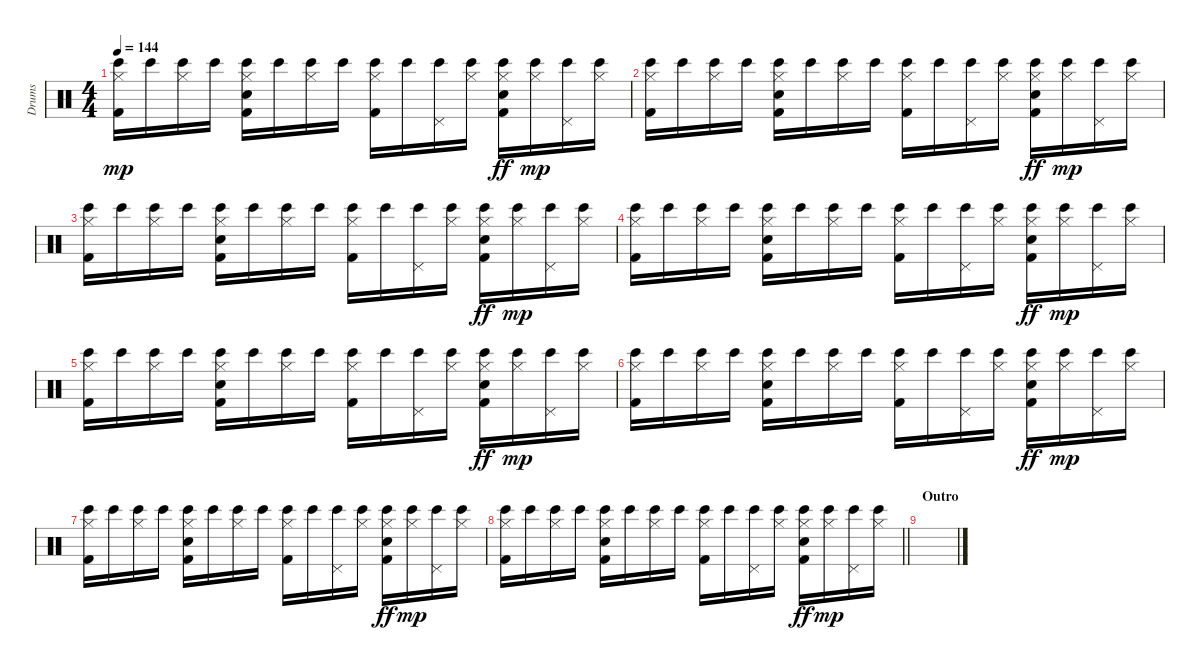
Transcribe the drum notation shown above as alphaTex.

\track ("Drums" "Drums") {instrument percussion}
\staff {score}
\articulation defaults
\ts (4 4)
\tempo 144
\clef neutral
\ks c
("Kick (hit) 2" "Hi-Hat (closed)" "Bongo High (hit)").16{dy mp} "Bongo High (hit)".16 ("Hi-Hat (closed)" "Bongo High (hit)").16 "Bongo High (hit)".16 ("Kick (hit) 2" "Snare (hit) 2" "Hi-Hat (closed)" "Bongo High (hit)").16 "Bongo High (hit)".16 ("Hi-Hat (closed)" "Bongo High (hit)").16 "Bongo High (hit)".16 ("Kick (hit) 2" "Hi-Hat (closed)" "Bongo High (hit)").16 "Bongo High (hit)".16 ("Pedal Hi-Hat (hit)" "Bongo High (hit)").16 ("Hi-Hat (closed)" "Bongo High (hit)").16 ("Kick (hit) 2" "Snare (hit) 2" "Hi-Hat (closed)" "Bongo High (hit)").16{dy ff} ("Hi-Hat (closed)" "Bongo High (hit)").16{dy mp} ("Pedal Hi-Hat (hit)" "Bongo High (hit)").16 ("Hi-Hat (closed)" "Bongo High (hit)").16 |
("Kick (hit) 2" "Hi-Hat (closed)" "Bongo High (hit)").16 "Bongo High (hit)".16 ("Hi-Hat (closed)" "Bongo High (hit)").16 "Bongo High (hit)".16 ("Kick (hit) 2" "Snare (hit) 2" "Hi-Hat (closed)" "Bongo High (hit)").16 "Bongo High (hit)".16 ("Hi-Hat (closed)" "Bongo High (hit)").16 "Bongo High (hit)".16 ("Kick (hit) 2" "Hi-Hat (closed)" "Bongo High (hit)").16 "Bongo High (hit)".16 ("Pedal Hi-Hat (hit)" "Bongo High (hit)").16 ("Hi-Hat (closed)" "Bongo High (hit)").16 ("Kick (hit) 2" "Snare (hit) 2" "Hi-Hat (closed)" "Bongo High (hit)").16{dy ff} ("Hi-Hat (closed)" "Bongo High (hit)").16{dy mp} ("Pedal Hi-Hat (hit)" "Bongo High (hit)").16 ("Hi-Hat (closed)" "Bongo High (hit)").16 |
("Kick (hit) 2" "Hi-Hat (closed)" "Bongo High (hit)").16 "Bongo High (hit)".16 ("Hi-Hat (closed)" "Bongo High (hit)").16 "Bongo High (hit)".16 ("Kick (hit) 2" "Snare (hit) 2" "Hi-Hat (closed)" "Bongo High (hit)").16 "Bongo High (hit)".16 ("Hi-Hat (closed)" "Bongo High (hit)").16 "Bongo High (hit)".16 ("Kick (hit) 2" "Hi-Hat (closed)" "Bongo High (hit)").16 "Bongo High (hit)".16 ("Pedal Hi-Hat (hit)" "Bongo High (hit)").16 ("Hi-Hat (closed)" "Bongo High (hit)").16 ("Kick (hit) 2" "Snare (hit) 2" "Hi-Hat (closed)" "Bongo High (hit)").16{dy ff} ("Hi-Hat (closed)" "Bongo High (hit)").16{dy mp} ("Pedal Hi-Hat (hit)" "Bongo High (hit)").16 ("Hi-Hat (closed)" "Bongo High (hit)").16 |
("Kick (hit) 2" "Hi-Hat (closed)" "Bongo High (hit)").16 "Bongo High (hit)".16 ("Hi-Hat (closed)" "Bongo High (hit)").16 "Bongo High (hit)".16 ("Kick (hit) 2" "Snare (hit) 2" "Hi-Hat (closed)" "Bongo High (hit)").16 "Bongo High (hit)".16 ("Hi-Hat (closed)" "Bongo High (hit)").16 "Bongo High (hit)".16 ("Kick (hit) 2" "Hi-Hat (closed)" "Bongo High (hit)").16 "Bongo High (hit)".16 ("Pedal Hi-Hat (hit)" "Bongo High (hit)").16 ("Hi-Hat (closed)" "Bongo High (hit)").16 ("Kick (hit) 2" "Snare (hit) 2" "Hi-Hat (closed)" "Bongo High (hit)").16{dy ff} ("Hi-Hat (closed)" "Bongo High (hit)").16{dy mp} ("Pedal Hi-Hat (hit)" "Bongo High (hit)").16 ("Hi-Hat (closed)" "Bongo High (hit)").16 |
("Kick (hit) 2" "Hi-Hat (closed)" "Bongo High (hit)").16 "Bongo High (hit)".16 ("Hi-Hat (closed)" "Bongo High (hit)").16 "Bongo High (hit)".16 ("Kick (hit) 2" "Snare (hit) 2" "Hi-Hat (closed)" "Bongo High (hit)").16 "Bongo High (hit)".16 ("Hi-Hat (closed)" "Bongo High (hit)").16 "Bongo High (hit)".16 ("Kick (hit) 2" "Hi-Hat (closed)" "Bongo High (hit)").16 "Bongo High (hit)".16 ("Pedal Hi-Hat (hit)" "Bongo High (hit)").16 ("Hi-Hat (closed)" "Bongo High (hit)").16 ("Kick (hit) 2" "Snare (hit) 2" "Hi-Hat (closed)" "Bongo High (hit)").16{dy ff} ("Hi-Hat (closed)" "Bongo High (hit)").16{dy mp} ("Pedal Hi-Hat (hit)" "Bongo High (hit)").16 ("Hi-Hat (closed)" "Bongo High (hit)").16 |
("Kick (hit) 2" "Hi-Hat (closed)" "Bongo High (hit)").16 "Bongo High (hit)".16 ("Hi-Hat (closed)" "Bongo High (hit)").16 "Bongo High (hit)".16 ("Kick (hit) 2" "Snare (hit) 2" "Hi-Hat (closed)" "Bongo High (hit)").16 "Bongo High (hit)".16 ("Hi-Hat (closed)" "Bongo High (hit)").16 "Bongo High (hit)".16 ("Kick (hit) 2" "Hi-Hat (closed)" "Bongo High (hit)").16 "Bongo High (hit)".16 ("Pedal Hi-Hat (hit)" "Bongo High (hit)").16 ("Hi-Hat (closed)" "Bongo High (hit)").16 ("Kick (hit) 2" "Snare (hit) 2" "Hi-Hat (closed)" "Bongo High (hit)").16{dy ff} ("Hi-Hat (closed)" "Bongo High (hit)").16{dy mp} ("Pedal Hi-Hat (hit)" "Bongo High (hit)").16 ("Hi-Hat (closed)" "Bongo High (hit)").16 |
("Kick (hit) 2" "Hi-Hat (closed)" "Bongo High (hit)").16 "Bongo High (hit)".16 ("Hi-Hat (closed)" "Bongo High (hit)").16 "Bongo High (hit)".16 ("Kick (hit) 2" "Snare (hit) 2" "Hi-Hat (closed)" "Bongo High (hit)").16 "Bongo High (hit)".16 ("Hi-Hat (closed)" "Bongo High (hit)").16 "Bongo High (hit)".16 ("Kick (hit) 2" "Hi-Hat (closed)" "Bongo High (hit)").16 "Bongo High (hit)".16 ("Pedal Hi-Hat (hit)" "Bongo High (hit)").16 ("Hi-Hat (closed)" "Bongo High (hit)").16 ("Kick (hit) 2" "Snare (hit) 2" "Hi-Hat (closed)" "Bongo High (hit)").16{dy ff} ("Hi-Hat (closed)" "Bongo High (hit)").16{dy mp} ("Pedal Hi-Hat (hit)" "Bongo High (hit)").16 ("Hi-Hat (closed)" "Bongo High (hit)").16 |
\barLineRight lightlight
("Kick (hit) 2" "Hi-Hat (closed)" "Bongo High (hit)").16 "Bongo High (hit)".16 ("Hi-Hat (closed)" "Bongo High (hit)").16 "Bongo High (hit)".16 ("Kick (hit) 2" "Snare (hit) 2" "Hi-Hat (closed)" "Bongo High (hit)").16 "Bongo High (hit)".16 ("Hi-Hat (closed)" "Bongo High (hit)").16 "Bongo High (hit)".16 ("Kick (hit) 2" "Hi-Hat (closed)" "Bongo High (hit)").16 "Bongo High (hit)".16 ("Pedal Hi-Hat (hit)" "Bongo High (hit)").16 ("Hi-Hat (closed)" "Bongo High (hit)").16 ("Kick (hit) 2" "Snare (hit) 2" "Hi-Hat (closed)" "Bongo High (hit)").16{dy ff} ("Hi-Hat (closed)" "Bongo High (hit)").16{dy mp} ("Pedal Hi-Hat (hit)" "Bongo High (hit)").16 ("Hi-Hat (closed)" "Bongo High (hit)").16 |
\section ("" "Outro")
